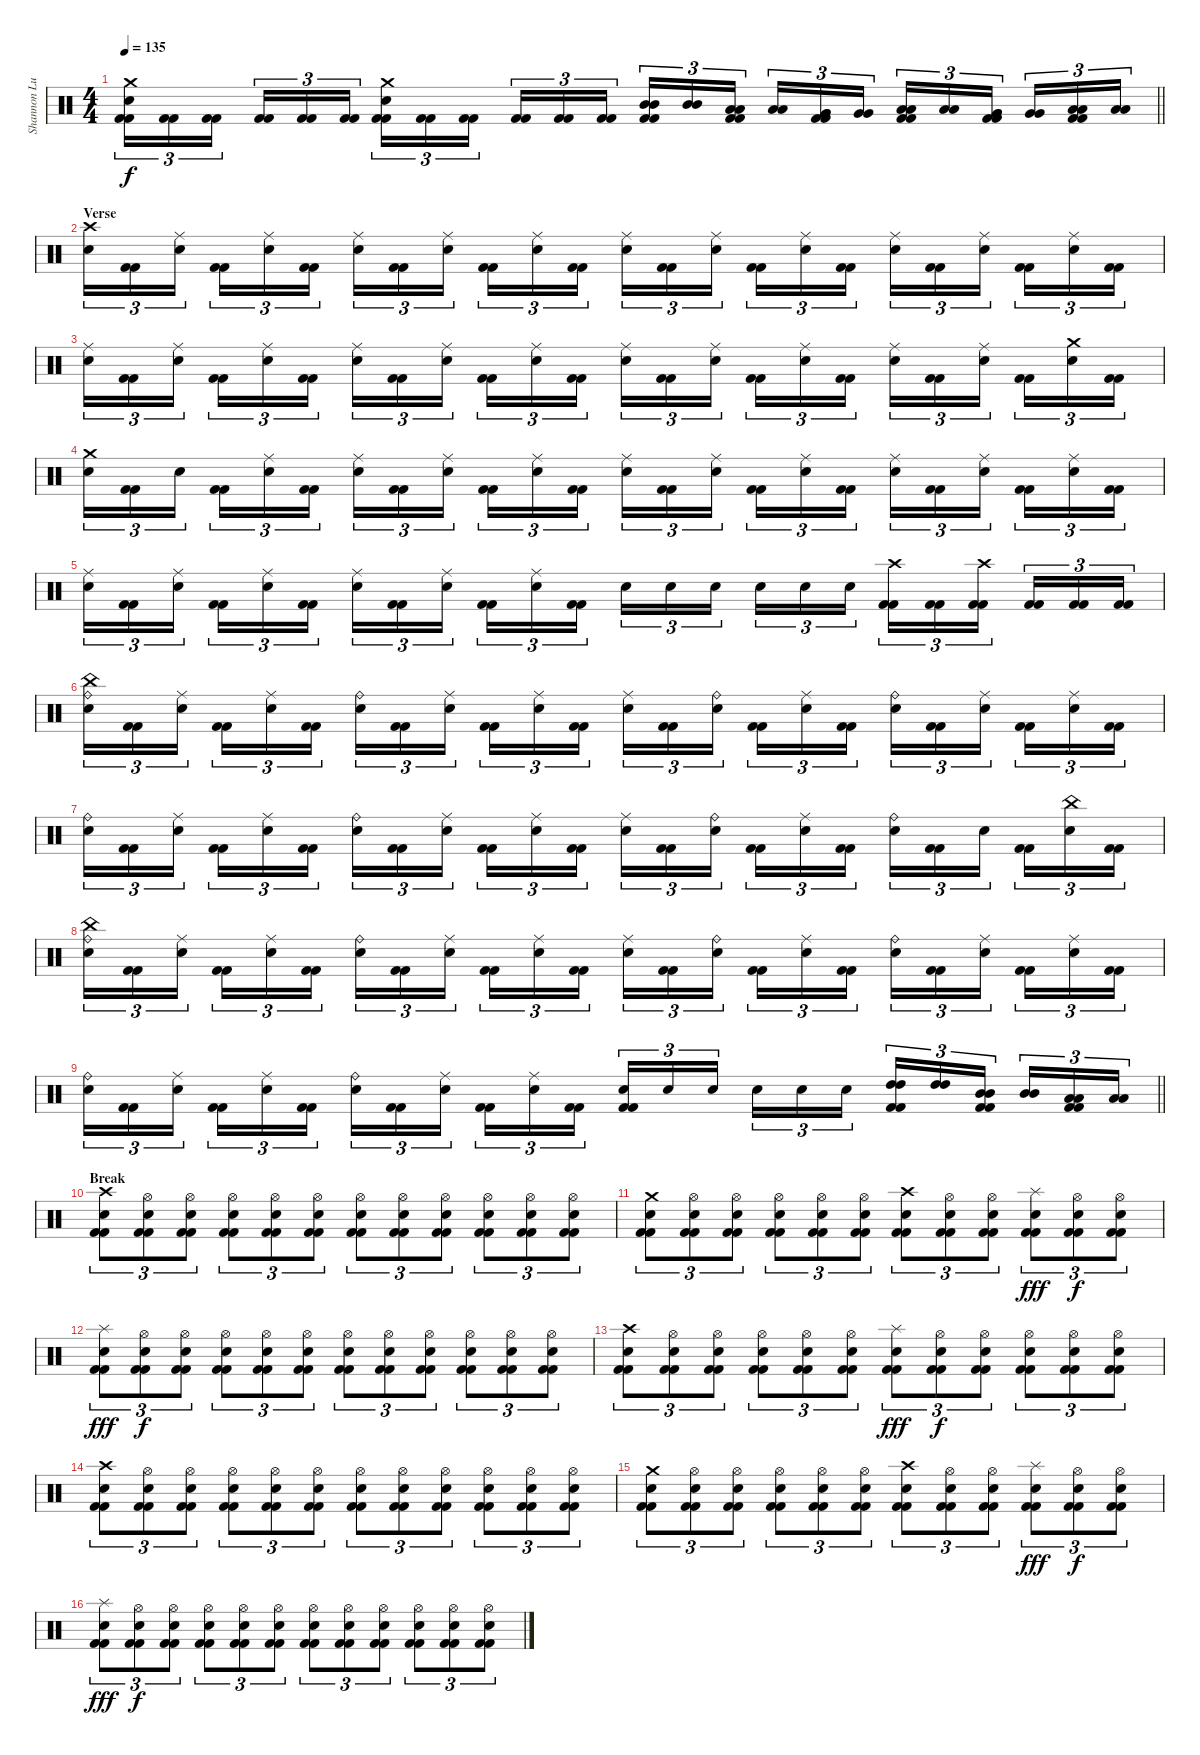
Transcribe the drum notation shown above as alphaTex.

\track ("Shannon Lucas" "Shannon Lu") {instrument percussion}
\staff {score}
\articulation defaults
\ts (4 4)
\tempo 135
\clef neutral
\barLineRight lightlight
\ks c
("Crash medium (hit)" "Electric Snare (hit)" "Kick (hit) 2" "Kick (hit) 2").16{tu (3 2) dy f} ("Kick (hit) 2" "Kick (hit) 2").16{tu (3 2)} ("Kick (hit) 2" "Kick (hit) 2").16{tu (3 2) beam splitsecondary} ("Kick (hit) 2" "Kick (hit) 2").16{tu (3 2)} ("Kick (hit) 2" "Kick (hit) 2").16{tu (3 2)} ("Kick (hit) 2" "Kick (hit) 2").16{tu (3 2)} ("Crash medium (hit)" "Electric Snare (hit)" "Kick (hit) 2" "Kick (hit) 2").16{tu (3 2)} ("Kick (hit) 2" "Kick (hit) 2").16{tu (3 2)} ("Kick (hit) 2" "Kick (hit) 2").16{tu (3 2) beam splitsecondary} ("Kick (hit) 2" "Kick (hit) 2").16{tu (3 2)} ("Kick (hit) 2" "Kick (hit) 2").16{tu (3 2)} ("Kick (hit) 2" "Kick (hit) 2").16{tu (3 2)} ("Mid Tom (hit)" "Mid Tom (hit)" "Kick (hit) 2" "Kick (hit) 2").16{tu (3 2)} ("Mid Tom (hit)" "Mid Tom (hit)").16{tu (3 2)} ("Low Tom (hit)" "Low Tom (hit)" "Kick (hit) 2" "Kick (hit) 2").16{tu (3 2) beam splitsecondary} ("Low Tom (hit)" "Low Tom (hit)").16{tu (3 2)} ("Very Low Tom (hit)" "Very Low Tom (hit)" "Kick (hit) 2" "Kick (hit) 2").16{tu (3 2)} ("Very Low Tom (hit)" "Very Low Tom (hit)").16{tu (3 2)} ("Low Tom (hit)" "Low Tom (hit)" "Kick (hit) 2" "Kick (hit) 2").16{tu (3 2)} ("Low Tom (hit)" "Low Tom (hit)").16{tu (3 2)} ("Very Low Tom (hit)" "Very Low Tom (hit)" "Kick (hit) 2" "Kick (hit) 2").16{tu (3 2) beam splitsecondary} ("Very Low Tom (hit)" "Very Low Tom (hit)").16{tu (3 2)} ("Low Floor Tom (hit)" "Low Floor Tom (hit)" "Kick (hit) 2" "Kick (hit) 2").16{tu (3 2)} ("Low Floor Tom (hit)" "Low Floor Tom (hit)").16{tu (3 2)} |
\section ("" "Verse")
("Crash high (hit)" "Electric Snare (hit)").16{tu (3 2)} ("Kick (hit) 2" "Kick (hit) 2").16{tu (3 2)} ("Ride (middle)" "Electric Snare (hit)").16{tu (3 2) beam splitsecondary} ("Kick (hit) 2" "Kick (hit) 2").16{tu (3 2)} ("Ride (middle)" "Electric Snare (hit)").16{tu (3 2)} ("Kick (hit) 2" "Kick (hit) 2").16{tu (3 2)} ("Ride (middle)" "Electric Snare (hit)").16{tu (3 2)} ("Kick (hit) 2" "Kick (hit) 2").16{tu (3 2)} ("Ride (middle)" "Electric Snare (hit)").16{tu (3 2) beam splitsecondary} ("Kick (hit) 2" "Kick (hit) 2").16{tu (3 2)} ("Ride (middle)" "Electric Snare (hit)").16{tu (3 2)} ("Kick (hit) 2" "Kick (hit) 2").16{tu (3 2)} ("Ride (middle)" "Electric Snare (hit)").16{tu (3 2)} ("Kick (hit) 2" "Kick (hit) 2").16{tu (3 2)} ("Ride (middle)" "Electric Snare (hit)").16{tu (3 2) beam splitsecondary} ("Kick (hit) 2" "Kick (hit) 2").16{tu (3 2)} ("Ride (middle)" "Electric Snare (hit)").16{tu (3 2)} ("Kick (hit) 2" "Kick (hit) 2").16{tu (3 2)} ("Ride (middle)" "Electric Snare (hit)").16{tu (3 2)} ("Kick (hit) 2" "Kick (hit) 2").16{tu (3 2)} ("Ride (middle)" "Electric Snare (hit)").16{tu (3 2) beam splitsecondary} ("Kick (hit) 2" "Kick (hit) 2").16{tu (3 2)} ("Ride (middle)" "Electric Snare (hit)").16{tu (3 2)} ("Kick (hit) 2" "Kick (hit) 2").16{tu (3 2)} |
("Ride (middle)" "Electric Snare (hit)").16{tu (3 2)} ("Kick (hit) 2" "Kick (hit) 2").16{tu (3 2)} ("Ride (middle)" "Electric Snare (hit)").16{tu (3 2) beam splitsecondary} ("Kick (hit) 2" "Kick (hit) 2").16{tu (3 2)} ("Ride (middle)" "Electric Snare (hit)").16{tu (3 2)} ("Kick (hit) 2" "Kick (hit) 2").16{tu (3 2)} ("Ride (middle)" "Electric Snare (hit)").16{tu (3 2)} ("Kick (hit) 2" "Kick (hit) 2").16{tu (3 2)} ("Ride (middle)" "Electric Snare (hit)").16{tu (3 2) beam splitsecondary} ("Kick (hit) 2" "Kick (hit) 2").16{tu (3 2)} ("Ride (middle)" "Electric Snare (hit)").16{tu (3 2)} ("Kick (hit) 2" "Kick (hit) 2").16{tu (3 2)} ("Ride (middle)" "Electric Snare (hit)").16{tu (3 2)} ("Kick (hit) 2" "Kick (hit) 2").16{tu (3 2)} ("Ride (middle)" "Electric Snare (hit)").16{tu (3 2) beam splitsecondary} ("Kick (hit) 2" "Kick (hit) 2").16{tu (3 2)} ("Ride (middle)" "Electric Snare (hit)").16{tu (3 2)} ("Kick (hit) 2" "Kick (hit) 2").16{tu (3 2)} ("Ride (middle)" "Electric Snare (hit)").16{tu (3 2)} ("Kick (hit) 2" "Kick (hit) 2").16{tu (3 2)} ("Ride (middle)" "Electric Snare (hit)").16{tu (3 2) beam splitsecondary} ("Kick (hit) 2" "Kick (hit) 2").16{tu (3 2)} ("Crash medium (hit)" "Electric Snare (hit)").16{tu (3 2)} ("Kick (hit) 2" "Kick (hit) 2").16{tu (3 2)} |
("Crash medium (hit)" "Electric Snare (hit)").16{tu (3 2)} ("Kick (hit) 2" "Kick (hit) 2").16{tu (3 2)} "Electric Snare (hit)".16{tu (3 2) beam splitsecondary} ("Kick (hit) 2" "Kick (hit) 2").16{tu (3 2)} ("Ride (middle)" "Electric Snare (hit)").16{tu (3 2)} ("Kick (hit) 2" "Kick (hit) 2").16{tu (3 2)} ("Ride (middle)" "Electric Snare (hit)").16{tu (3 2)} ("Kick (hit) 2" "Kick (hit) 2").16{tu (3 2)} ("Ride (middle)" "Electric Snare (hit)").16{tu (3 2) beam splitsecondary} ("Kick (hit) 2" "Kick (hit) 2").16{tu (3 2)} ("Ride (middle)" "Electric Snare (hit)").16{tu (3 2)} ("Kick (hit) 2" "Kick (hit) 2").16{tu (3 2)} ("Ride (middle)" "Electric Snare (hit)").16{tu (3 2)} ("Kick (hit) 2" "Kick (hit) 2").16{tu (3 2)} ("Ride (middle)" "Electric Snare (hit)").16{tu (3 2) beam splitsecondary} ("Kick (hit) 2" "Kick (hit) 2").16{tu (3 2)} ("Ride (middle)" "Electric Snare (hit)").16{tu (3 2)} ("Kick (hit) 2" "Kick (hit) 2").16{tu (3 2)} ("Ride (middle)" "Electric Snare (hit)").16{tu (3 2)} ("Kick (hit) 2" "Kick (hit) 2").16{tu (3 2)} ("Ride (middle)" "Electric Snare (hit)").16{tu (3 2) beam splitsecondary} ("Kick (hit) 2" "Kick (hit) 2").16{tu (3 2)} ("Ride (middle)" "Electric Snare (hit)").16{tu (3 2)} ("Kick (hit) 2" "Kick (hit) 2").16{tu (3 2)} |
("Ride (middle)" "Electric Snare (hit)").16{tu (3 2)} ("Kick (hit) 2" "Kick (hit) 2").16{tu (3 2)} ("Ride (middle)" "Electric Snare (hit)").16{tu (3 2) beam splitsecondary} ("Kick (hit) 2" "Kick (hit) 2").16{tu (3 2)} ("Ride (middle)" "Electric Snare (hit)").16{tu (3 2)} ("Kick (hit) 2" "Kick (hit) 2").16{tu (3 2)} ("Ride (middle)" "Electric Snare (hit)").16{tu (3 2)} ("Kick (hit) 2" "Kick (hit) 2").16{tu (3 2)} ("Ride (middle)" "Electric Snare (hit)").16{tu (3 2) beam splitsecondary} ("Kick (hit) 2" "Kick (hit) 2").16{tu (3 2)} ("Ride (middle)" "Electric Snare (hit)").16{tu (3 2)} ("Kick (hit) 2" "Kick (hit) 2").16{tu (3 2)} "Electric Snare (hit)".16{tu (3 2)} "Electric Snare (hit)".16{tu (3 2)} "Electric Snare (hit)".16{tu (3 2) beam splitsecondary} "Electric Snare (hit)".16{tu (3 2)} "Electric Snare (hit)".16{tu (3 2)} "Electric Snare (hit)".16{tu (3 2)} ("Crash high (hit)" "Kick (hit) 2" "Kick (hit) 2").16{tu (3 2)} ("Kick (hit) 2" "Kick (hit) 2").16{tu (3 2)} ("Crash high (hit)" "Kick (hit) 2" "Kick (hit) 2").16{tu (3 2) beam splitsecondary} ("Kick (hit) 2" "Kick (hit) 2").16{tu (3 2)} ("Kick (hit) 2" "Kick (hit) 2").16{tu (3 2)} ("Kick (hit) 2" "Kick (hit) 2").16{tu (3 2)} |
("China (hit)" "Ride (bell)" "Electric Snare (hit)").16{tu (3 2)} ("Kick (hit) 2" "Kick (hit) 2").16{tu (3 2)} ("Ride (middle)" "Electric Snare (hit)").16{tu (3 2) beam splitsecondary} ("Kick (hit) 2" "Kick (hit) 2").16{tu (3 2)} ("Ride (middle)" "Electric Snare (hit)").16{tu (3 2)} ("Kick (hit) 2" "Kick (hit) 2").16{tu (3 2)} ("Ride (bell)" "Electric Snare (hit)").16{tu (3 2)} ("Kick (hit) 2" "Kick (hit) 2").16{tu (3 2)} ("Ride (middle)" "Electric Snare (hit)").16{tu (3 2) beam splitsecondary} ("Kick (hit) 2" "Kick (hit) 2").16{tu (3 2)} ("Ride (middle)" "Electric Snare (hit)").16{tu (3 2)} ("Kick (hit) 2" "Kick (hit) 2").16{tu (3 2)} ("Ride (middle)" "Electric Snare (hit)").16{tu (3 2)} ("Kick (hit) 2" "Kick (hit) 2").16{tu (3 2)} ("Ride (bell)" "Electric Snare (hit)").16{tu (3 2) beam splitsecondary} ("Kick (hit) 2" "Kick (hit) 2").16{tu (3 2)} ("Ride (middle)" "Electric Snare (hit)").16{tu (3 2)} ("Kick (hit) 2" "Kick (hit) 2").16{tu (3 2)} ("Ride (bell)" "Electric Snare (hit)").16{tu (3 2)} ("Kick (hit) 2" "Kick (hit) 2").16{tu (3 2)} ("Ride (middle)" "Electric Snare (hit)").16{tu (3 2) beam splitsecondary} ("Kick (hit) 2" "Kick (hit) 2").16{tu (3 2)} ("Ride (middle)" "Electric Snare (hit)").16{tu (3 2)} ("Kick (hit) 2" "Kick (hit) 2").16{tu (3 2)} |
("Ride (bell)" "Electric Snare (hit)").16{tu (3 2)} ("Kick (hit) 2" "Kick (hit) 2").16{tu (3 2)} ("Ride (middle)" "Electric Snare (hit)").16{tu (3 2) beam splitsecondary} ("Kick (hit) 2" "Kick (hit) 2").16{tu (3 2)} ("Ride (middle)" "Electric Snare (hit)").16{tu (3 2)} ("Kick (hit) 2" "Kick (hit) 2").16{tu (3 2)} ("Ride (bell)" "Electric Snare (hit)").16{tu (3 2)} ("Kick (hit) 2" "Kick (hit) 2").16{tu (3 2)} ("Ride (middle)" "Electric Snare (hit)").16{tu (3 2) beam splitsecondary} ("Kick (hit) 2" "Kick (hit) 2").16{tu (3 2)} ("Ride (middle)" "Electric Snare (hit)").16{tu (3 2)} ("Kick (hit) 2" "Kick (hit) 2").16{tu (3 2)} ("Ride (middle)" "Electric Snare (hit)").16{tu (3 2)} ("Kick (hit) 2" "Kick (hit) 2").16{tu (3 2)} ("Ride (bell)" "Electric Snare (hit)").16{tu (3 2) beam splitsecondary} ("Kick (hit) 2" "Kick (hit) 2").16{tu (3 2)} ("Ride (middle)" "Electric Snare (hit)").16{tu (3 2)} ("Kick (hit) 2" "Kick (hit) 2").16{tu (3 2)} ("Ride (bell)" "Electric Snare (hit)").16{tu (3 2)} ("Kick (hit) 2" "Kick (hit) 2").16{tu (3 2)} "Electric Snare (hit)".16{tu (3 2) beam splitsecondary} ("Kick (hit) 2" "Kick (hit) 2").16{tu (3 2)} ("China (hit)" "Electric Snare (hit)").16{tu (3 2)} ("Kick (hit) 2" "Kick (hit) 2").16{tu (3 2)} |
("China (hit)" "Ride (bell)" "Electric Snare (hit)").16{tu (3 2)} ("Kick (hit) 2" "Kick (hit) 2").16{tu (3 2)} ("Ride (middle)" "Electric Snare (hit)").16{tu (3 2) beam splitsecondary} ("Kick (hit) 2" "Kick (hit) 2").16{tu (3 2)} ("Ride (middle)" "Electric Snare (hit)").16{tu (3 2)} ("Kick (hit) 2" "Kick (hit) 2").16{tu (3 2)} ("Ride (bell)" "Electric Snare (hit)").16{tu (3 2)} ("Kick (hit) 2" "Kick (hit) 2").16{tu (3 2)} ("Ride (middle)" "Electric Snare (hit)").16{tu (3 2) beam splitsecondary} ("Kick (hit) 2" "Kick (hit) 2").16{tu (3 2)} ("Ride (middle)" "Electric Snare (hit)").16{tu (3 2)} ("Kick (hit) 2" "Kick (hit) 2").16{tu (3 2)} ("Ride (middle)" "Electric Snare (hit)").16{tu (3 2)} ("Kick (hit) 2" "Kick (hit) 2").16{tu (3 2)} ("Ride (bell)" "Electric Snare (hit)").16{tu (3 2) beam splitsecondary} ("Kick (hit) 2" "Kick (hit) 2").16{tu (3 2)} ("Ride (middle)" "Electric Snare (hit)").16{tu (3 2)} ("Kick (hit) 2" "Kick (hit) 2").16{tu (3 2)} ("Ride (bell)" "Electric Snare (hit)").16{tu (3 2)} ("Kick (hit) 2" "Kick (hit) 2").16{tu (3 2)} ("Ride (middle)" "Electric Snare (hit)").16{tu (3 2) beam splitsecondary} ("Kick (hit) 2" "Kick (hit) 2").16{tu (3 2)} ("Ride (middle)" "Electric Snare (hit)").16{tu (3 2)} ("Kick (hit) 2" "Kick (hit) 2").16{tu (3 2)} |
\barLineRight lightlight
("Ride (bell)" "Electric Snare (hit)").16{tu (3 2)} ("Kick (hit) 2" "Kick (hit) 2").16{tu (3 2)} ("Ride (middle)" "Electric Snare (hit)").16{tu (3 2) beam splitsecondary} ("Kick (hit) 2" "Kick (hit) 2").16{tu (3 2)} ("Ride (middle)" "Electric Snare (hit)").16{tu (3 2)} ("Kick (hit) 2" "Kick (hit) 2").16{tu (3 2)} ("Ride (bell)" "Electric Snare (hit)").16{tu (3 2)} ("Kick (hit) 2" "Kick (hit) 2").16{tu (3 2)} ("Ride (middle)" "Electric Snare (hit)").16{tu (3 2) beam splitsecondary} ("Kick (hit) 2" "Kick (hit) 2").16{tu (3 2)} ("Ride (middle)" "Electric Snare (hit)").16{tu (3 2)} ("Kick (hit) 2" "Kick (hit) 2").16{tu (3 2)} ("Electric Snare (hit)" "Kick (hit) 2" "Kick (hit) 2").16{tu (3 2)} "Electric Snare (hit)".16{tu (3 2)} "Electric Snare (hit)".16{tu (3 2) beam splitsecondary} "Electric Snare (hit)".16{tu (3 2)} "Electric Snare (hit)".16{tu (3 2)} "Electric Snare (hit)".16{tu (3 2)} ("High Tom (hit)" "High Tom (hit)" "Kick (hit) 2" "Kick (hit) 2").16{tu (3 2)} ("High Tom (hit)" "High Tom (hit)").16{tu (3 2)} ("Mid Tom (hit)" "Mid Tom (hit)" "Kick (hit) 2" "Kick (hit) 2").16{tu (3 2) beam splitsecondary} ("Mid Tom (hit)" "Mid Tom (hit)").16{tu (3 2)} ("Low Tom (hit)" "Low Tom (hit)" "Kick (hit) 2" "Kick (hit) 2").16{tu (3 2)} ("Low Tom (hit)" "Low Tom (hit)").16{tu (3 2)} |
\section ("" "Break")
("Crash high (hit)" "Electric Snare (hit)" "Kick (hit) 2" "Kick (hit) 2").8{tu (3 2)} ("Hi-Hat (open)" "Electric Snare (hit)" "Kick (hit) 2" "Kick (hit) 2").8{tu (3 2)} ("Hi-Hat (open)" "Electric Snare (hit)" "Kick (hit) 2" "Kick (hit) 2").8{tu (3 2)} ("Hi-Hat (open)" "Electric Snare (hit)" "Kick (hit) 2" "Kick (hit) 2").8{tu (3 2)} ("Hi-Hat (open)" "Electric Snare (hit)" "Kick (hit) 2" "Kick (hit) 2").8{tu (3 2)} ("Hi-Hat (open)" "Electric Snare (hit)" "Kick (hit) 2" "Kick (hit) 2").8{tu (3 2)} ("Hi-Hat (open)" "Electric Snare (hit)" "Kick (hit) 2" "Kick (hit) 2").8{tu (3 2)} ("Hi-Hat (open)" "Electric Snare (hit)" "Kick (hit) 2" "Kick (hit) 2").8{tu (3 2)} ("Hi-Hat (open)" "Electric Snare (hit)" "Kick (hit) 2" "Kick (hit) 2").8{tu (3 2)} ("Hi-Hat (open)" "Electric Snare (hit)" "Kick (hit) 2" "Kick (hit) 2").8{tu (3 2)} ("Hi-Hat (open)" "Electric Snare (hit)" "Kick (hit) 2" "Kick (hit) 2").8{tu (3 2)} ("Hi-Hat (open)" "Electric Snare (hit)" "Kick (hit) 2" "Kick (hit) 2").8{tu (3 2)} |
("Crash medium (hit)" "Electric Snare (hit)" "Kick (hit) 2" "Kick (hit) 2").8{tu (3 2)} ("Hi-Hat (open)" "Electric Snare (hit)" "Kick (hit) 2" "Kick (hit) 2").8{tu (3 2)} ("Hi-Hat (open)" "Electric Snare (hit)" "Kick (hit) 2" "Kick (hit) 2").8{tu (3 2)} ("Hi-Hat (open)" "Electric Snare (hit)" "Kick (hit) 2" "Kick (hit) 2").8{tu (3 2)} ("Hi-Hat (open)" "Electric Snare (hit)" "Kick (hit) 2" "Kick (hit) 2").8{tu (3 2)} ("Hi-Hat (open)" "Electric Snare (hit)" "Kick (hit) 2" "Kick (hit) 2").8{tu (3 2)} ("Crash high (hit)" "Electric Snare (hit)" "Kick (hit) 2" "Kick (hit) 2").8{tu (3 2)} ("Hi-Hat (open)" "Electric Snare (hit)" "Kick (hit) 2" "Kick (hit) 2").8{tu (3 2)} ("Hi-Hat (open)" "Electric Snare (hit)" "Kick (hit) 2" "Kick (hit) 2").8{tu (3 2)} ("Splash (hit)" "Electric Snare (hit)" "Kick (hit) 2" "Kick (hit) 2").8{tu (3 2) dy fff} ("Hi-Hat (open)" "Electric Snare (hit)" "Kick (hit) 2" "Kick (hit) 2").8{tu (3 2) dy f} ("Hi-Hat (open)" "Electric Snare (hit)" "Kick (hit) 2" "Kick (hit) 2").8{tu (3 2)} |
("Splash (hit)" "Electric Snare (hit)" "Kick (hit) 2" "Kick (hit) 2").8{tu (3 2) dy fff} ("Hi-Hat (open)" "Electric Snare (hit)" "Kick (hit) 2" "Kick (hit) 2").8{tu (3 2) dy f} ("Hi-Hat (open)" "Electric Snare (hit)" "Kick (hit) 2" "Kick (hit) 2").8{tu (3 2)} ("Hi-Hat (open)" "Electric Snare (hit)" "Kick (hit) 2" "Kick (hit) 2").8{tu (3 2)} ("Hi-Hat (open)" "Electric Snare (hit)" "Kick (hit) 2" "Kick (hit) 2").8{tu (3 2)} ("Hi-Hat (open)" "Electric Snare (hit)" "Kick (hit) 2" "Kick (hit) 2").8{tu (3 2)} ("Hi-Hat (open)" "Electric Snare (hit)" "Kick (hit) 2" "Kick (hit) 2").8{tu (3 2)} ("Hi-Hat (open)" "Electric Snare (hit)" "Kick (hit) 2" "Kick (hit) 2").8{tu (3 2)} ("Hi-Hat (open)" "Electric Snare (hit)" "Kick (hit) 2" "Kick (hit) 2").8{tu (3 2)} ("Hi-Hat (open)" "Electric Snare (hit)" "Kick (hit) 2" "Kick (hit) 2").8{tu (3 2)} ("Hi-Hat (open)" "Electric Snare (hit)" "Kick (hit) 2" "Kick (hit) 2").8{tu (3 2)} ("Hi-Hat (open)" "Electric Snare (hit)" "Kick (hit) 2" "Kick (hit) 2").8{tu (3 2)} |
("Crash high (hit)" "Electric Snare (hit)" "Kick (hit) 2" "Kick (hit) 2").8{tu (3 2)} ("Hi-Hat (open)" "Electric Snare (hit)" "Kick (hit) 2" "Kick (hit) 2").8{tu (3 2)} ("Hi-Hat (open)" "Electric Snare (hit)" "Kick (hit) 2" "Kick (hit) 2").8{tu (3 2)} ("Hi-Hat (open)" "Electric Snare (hit)" "Kick (hit) 2" "Kick (hit) 2").8{tu (3 2)} ("Hi-Hat (open)" "Electric Snare (hit)" "Kick (hit) 2" "Kick (hit) 2").8{tu (3 2)} ("Hi-Hat (open)" "Electric Snare (hit)" "Kick (hit) 2" "Kick (hit) 2").8{tu (3 2)} ("Splash (hit)" "Electric Snare (hit)" "Kick (hit) 2" "Kick (hit) 2").8{tu (3 2) dy fff} ("Hi-Hat (open)" "Electric Snare (hit)" "Kick (hit) 2" "Kick (hit) 2").8{tu (3 2) dy f} ("Hi-Hat (open)" "Electric Snare (hit)" "Kick (hit) 2" "Kick (hit) 2").8{tu (3 2)} ("Hi-Hat (open)" "Electric Snare (hit)" "Kick (hit) 2" "Kick (hit) 2").8{tu (3 2)} ("Hi-Hat (open)" "Electric Snare (hit)" "Kick (hit) 2" "Kick (hit) 2").8{tu (3 2)} ("Hi-Hat (open)" "Electric Snare (hit)" "Kick (hit) 2" "Kick (hit) 2").8{tu (3 2)} |
("Crash high (hit)" "Electric Snare (hit)" "Kick (hit) 2" "Kick (hit) 2").8{tu (3 2)} ("Hi-Hat (open)" "Electric Snare (hit)" "Kick (hit) 2" "Kick (hit) 2").8{tu (3 2)} ("Hi-Hat (open)" "Electric Snare (hit)" "Kick (hit) 2" "Kick (hit) 2").8{tu (3 2)} ("Hi-Hat (open)" "Electric Snare (hit)" "Kick (hit) 2" "Kick (hit) 2").8{tu (3 2)} ("Hi-Hat (open)" "Electric Snare (hit)" "Kick (hit) 2" "Kick (hit) 2").8{tu (3 2)} ("Hi-Hat (open)" "Electric Snare (hit)" "Kick (hit) 2" "Kick (hit) 2").8{tu (3 2)} ("Hi-Hat (open)" "Electric Snare (hit)" "Kick (hit) 2" "Kick (hit) 2").8{tu (3 2)} ("Hi-Hat (open)" "Electric Snare (hit)" "Kick (hit) 2" "Kick (hit) 2").8{tu (3 2)} ("Hi-Hat (open)" "Electric Snare (hit)" "Kick (hit) 2" "Kick (hit) 2").8{tu (3 2)} ("Hi-Hat (open)" "Electric Snare (hit)" "Kick (hit) 2" "Kick (hit) 2").8{tu (3 2)} ("Hi-Hat (open)" "Electric Snare (hit)" "Kick (hit) 2" "Kick (hit) 2").8{tu (3 2)} ("Hi-Hat (open)" "Electric Snare (hit)" "Kick (hit) 2" "Kick (hit) 2").8{tu (3 2)} |
("Crash medium (hit)" "Electric Snare (hit)" "Kick (hit) 2" "Kick (hit) 2").8{tu (3 2)} ("Hi-Hat (open)" "Electric Snare (hit)" "Kick (hit) 2" "Kick (hit) 2").8{tu (3 2)} ("Hi-Hat (open)" "Electric Snare (hit)" "Kick (hit) 2" "Kick (hit) 2").8{tu (3 2)} ("Hi-Hat (open)" "Electric Snare (hit)" "Kick (hit) 2" "Kick (hit) 2").8{tu (3 2)} ("Hi-Hat (open)" "Electric Snare (hit)" "Kick (hit) 2" "Kick (hit) 2").8{tu (3 2)} ("Hi-Hat (open)" "Electric Snare (hit)" "Kick (hit) 2" "Kick (hit) 2").8{tu (3 2)} ("Crash high (hit)" "Electric Snare (hit)" "Kick (hit) 2" "Kick (hit) 2").8{tu (3 2)} ("Hi-Hat (open)" "Electric Snare (hit)" "Kick (hit) 2" "Kick (hit) 2").8{tu (3 2)} ("Hi-Hat (open)" "Electric Snare (hit)" "Kick (hit) 2" "Kick (hit) 2").8{tu (3 2)} ("Splash (hit)" "Electric Snare (hit)" "Kick (hit) 2" "Kick (hit) 2").8{tu (3 2) dy fff} ("Hi-Hat (open)" "Electric Snare (hit)" "Kick (hit) 2" "Kick (hit) 2").8{tu (3 2) dy f} ("Hi-Hat (open)" "Electric Snare (hit)" "Kick (hit) 2" "Kick (hit) 2").8{tu (3 2)} |
("Splash (hit)" "Electric Snare (hit)" "Kick (hit) 2" "Kick (hit) 2").8{tu (3 2) dy fff} ("Hi-Hat (open)" "Electric Snare (hit)" "Kick (hit) 2" "Kick (hit) 2").8{tu (3 2) dy f} ("Hi-Hat (open)" "Electric Snare (hit)" "Kick (hit) 2" "Kick (hit) 2").8{tu (3 2)} ("Hi-Hat (open)" "Electric Snare (hit)" "Kick (hit) 2" "Kick (hit) 2").8{tu (3 2)} ("Hi-Hat (open)" "Electric Snare (hit)" "Kick (hit) 2" "Kick (hit) 2").8{tu (3 2)} ("Hi-Hat (open)" "Electric Snare (hit)" "Kick (hit) 2" "Kick (hit) 2").8{tu (3 2)} ("Hi-Hat (open)" "Electric Snare (hit)" "Kick (hit) 2" "Kick (hit) 2").8{tu (3 2)} ("Hi-Hat (open)" "Electric Snare (hit)" "Kick (hit) 2" "Kick (hit) 2").8{tu (3 2)} ("Hi-Hat (open)" "Electric Snare (hit)" "Kick (hit) 2" "Kick (hit) 2").8{tu (3 2)} ("Hi-Hat (open)" "Electric Snare (hit)" "Kick (hit) 2" "Kick (hit) 2").8{tu (3 2)} ("Hi-Hat (open)" "Electric Snare (hit)" "Kick (hit) 2" "Kick (hit) 2").8{tu (3 2)} ("Hi-Hat (open)" "Electric Snare (hit)" "Kick (hit) 2" "Kick (hit) 2").8{tu (3 2)}
